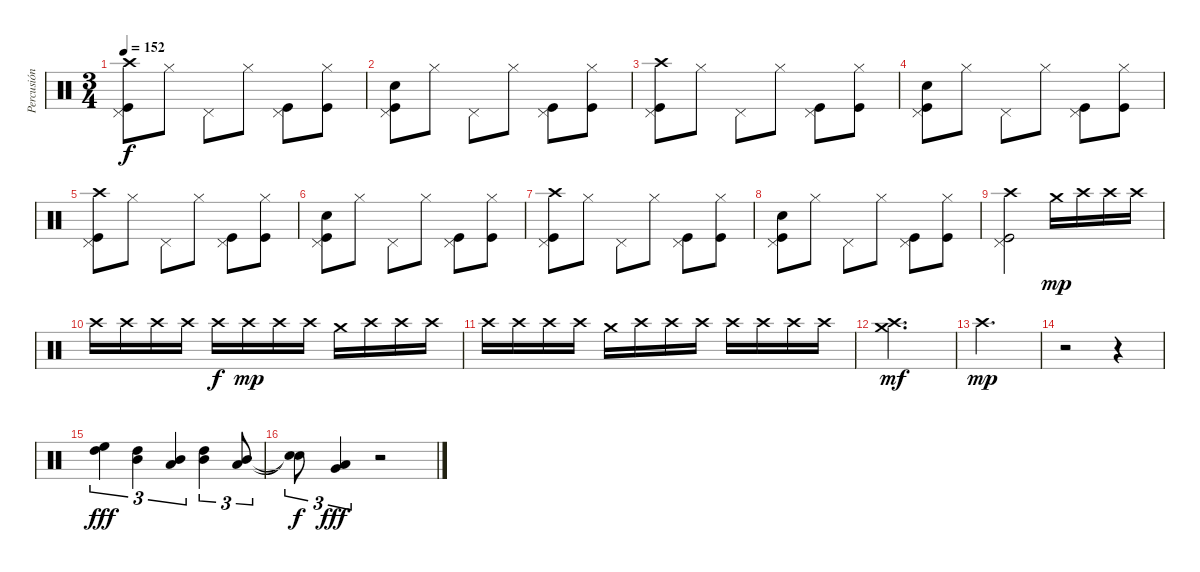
\track ("Percusión" "Percusión") {instrument percussion}
\staff {score}
\articulation defaults
\ts (3 4)
\tempo 152
\clef neutral
\ks c
("Crash high (hit)" "Pedal Hi-Hat (hit)" "Kick (hit)").8{dy f} "Hi-Hat (closed)".8 "Pedal Hi-Hat (hit)".8 "Hi-Hat (closed)".8 ("Pedal Hi-Hat (hit)" "Kick (hit)").8 ("Hi-Hat (closed)" "Kick (hit)").8 |
("Pedal Hi-Hat (hit)" "Snare (hit) 2" "Kick (hit)").8 "Hi-Hat (closed)".8 "Pedal Hi-Hat (hit)".8 "Hi-Hat (closed)".8 ("Pedal Hi-Hat (hit)" "Kick (hit)").8 ("Hi-Hat (closed)" "Kick (hit)").8 |
("Crash high (hit)" "Pedal Hi-Hat (hit)" "Kick (hit)").8 "Hi-Hat (closed)".8 "Pedal Hi-Hat (hit)".8 "Hi-Hat (closed)".8 ("Pedal Hi-Hat (hit)" "Kick (hit)").8 ("Hi-Hat (closed)" "Kick (hit)").8 |
("Pedal Hi-Hat (hit)" "Snare (hit) 2" "Kick (hit)").8 "Hi-Hat (closed)".8 "Pedal Hi-Hat (hit)".8 "Hi-Hat (closed)".8 ("Pedal Hi-Hat (hit)" "Kick (hit)").8 ("Hi-Hat (closed)" "Kick (hit)").8 |
("Crash high (hit)" "Pedal Hi-Hat (hit)" "Kick (hit)").8 "Hi-Hat (closed)".8 "Pedal Hi-Hat (hit)".8 "Hi-Hat (closed)".8 ("Pedal Hi-Hat (hit)" "Kick (hit)").8 ("Hi-Hat (closed)" "Kick (hit)").8 |
("Pedal Hi-Hat (hit)" "Snare (hit) 2" "Kick (hit)").8 "Hi-Hat (closed)".8 "Pedal Hi-Hat (hit)".8 "Hi-Hat (closed)".8 ("Pedal Hi-Hat (hit)" "Kick (hit)").8 ("Hi-Hat (closed)" "Kick (hit)").8 |
("Crash high (hit)" "Pedal Hi-Hat (hit)" "Kick (hit)").8 "Hi-Hat (closed)".8 "Pedal Hi-Hat (hit)".8 "Hi-Hat (closed)".8 ("Pedal Hi-Hat (hit)" "Kick (hit)").8 ("Hi-Hat (closed)" "Kick (hit)").8 |
("Pedal Hi-Hat (hit)" "Snare (hit) 2" "Kick (hit)").8 "Hi-Hat (closed)".8 "Pedal Hi-Hat (hit)".8 "Hi-Hat (closed)".8 ("Pedal Hi-Hat (hit)" "Kick (hit)").8 ("Hi-Hat (closed)" "Kick (hit)").8 |
("Crash high (hit)" "Pedal Hi-Hat (hit)" "Kick (hit)").2 "Crash medium (hit)".16{dy mp} "Crash high (hit)".16 "Crash high (hit)".16 "Crash high (hit)".16 |
"Crash high (hit)".16 "Crash high (hit)".16 "Crash high (hit)".16 "Crash high (hit)".16 "Crash high (hit)".16{dy f} "Crash high (hit)".16{dy mp} "Crash high (hit)".16 "Crash high (hit)".16 "Crash medium (hit)".16 "Crash high (hit)".16 "Crash high (hit)".16 "Crash high (hit)".16 |
"Crash high (hit)".16 "Crash high (hit)".16 "Crash high (hit)".16 "Crash high (hit)".16 "Crash medium (hit)".16 "Crash high (hit)".16 "Crash high (hit)".16 "Crash high (hit)".16 "Crash high (hit)".16 "Crash high (hit)".16 "Crash high (hit)".16 "Crash high (hit)".16 |
("Crash high (hit)" "Crash medium (hit)").2{d dy mf} |
"Crash high (hit)".2{d dy mp} |
r.2 r.4 |
("High Floor Tom (hit)" "High Tom (hit)").4{tu (3 2) dy fff} ("High Tom (hit)" "Mid Tom (hit)").4{tu (3 2)} ("Mid Tom (hit)" "Low Tom (hit)").4{tu (3 2)} ("High Tom (hit)" "Mid Tom (hit)").4{tu (3 2)} ("Mid Tom (hit)" "Low Tom (hit)").8{tu (3 2)} |
("Snare (hit)"{t} "Snare (hit)"{t}).8{tu (3 2) dy f} ("Low Tom (hit)" "Very Low Tom (hit)").4{tu (3 2) dy fff} r.2
